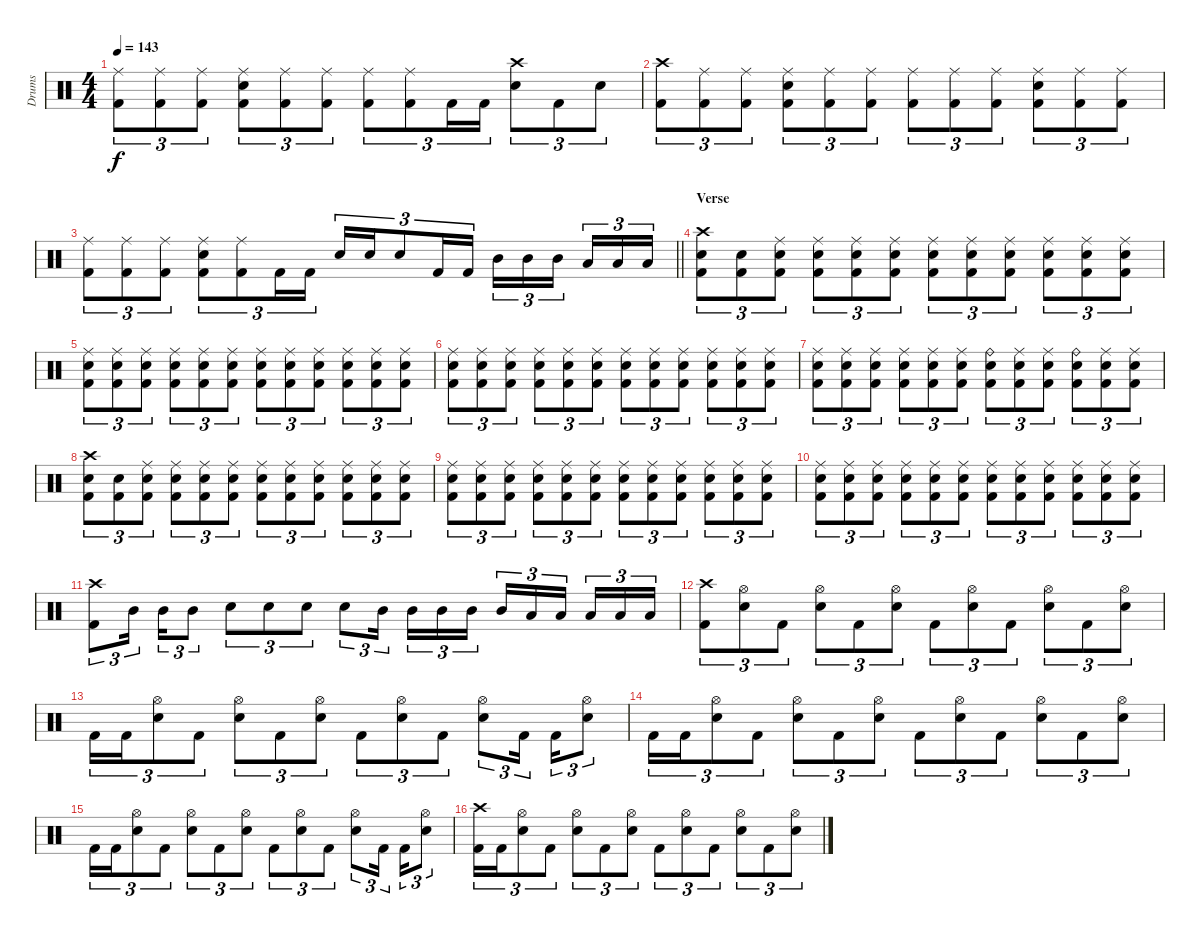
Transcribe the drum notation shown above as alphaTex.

\track ("Drums" "Drums") {instrument percussion}
\staff {score}
\articulation defaults
\ts (4 4)
\tempo 143
\clef neutral
\ks c
("Ride (middle)" "Kick (hit) 2").8{tu (3 2) dy f} ("Ride (middle)" "Kick (hit) 2").8{tu (3 2)} ("Ride (middle)" "Kick (hit) 2").8{tu (3 2)} ("Ride (middle)" "Snare (hit) 2" "Kick (hit) 2").8{tu (3 2)} ("Ride (middle)" "Kick (hit) 2").8{tu (3 2)} ("Ride (middle)" "Kick (hit) 2").8{tu (3 2)} ("Ride (middle)" "Kick (hit) 2").8{tu (3 2)} ("Ride (middle)" "Kick (hit) 2").8{tu (3 2)} "Kick (hit) 2".16{tu (3 2)} "Kick (hit) 2".16{tu (3 2)} ("Crash high (hit)" "Snare (hit) 2").8{tu (3 2)} "Kick (hit) 2".8{tu (3 2)} "Snare (hit) 2".8{tu (3 2)} |
("Crash high (hit)" "Kick (hit) 2").8{tu (3 2)} ("Ride (middle)" "Kick (hit) 2").8{tu (3 2)} ("Ride (middle)" "Kick (hit) 2").8{tu (3 2)} ("Ride (middle)" "Snare (hit) 2" "Kick (hit) 2").8{tu (3 2)} ("Ride (middle)" "Kick (hit) 2").8{tu (3 2)} ("Ride (middle)" "Kick (hit) 2").8{tu (3 2)} ("Ride (middle)" "Kick (hit) 2").8{tu (3 2)} ("Ride (middle)" "Kick (hit) 2").8{tu (3 2)} ("Ride (middle)" "Kick (hit) 2").8{tu (3 2)} ("Ride (middle)" "Snare (hit) 2" "Kick (hit) 2").8{tu (3 2)} ("Ride (middle)" "Kick (hit) 2").8{tu (3 2)} ("Ride (middle)" "Kick (hit) 2").8{tu (3 2)} |
\barLineRight lightlight
("Ride (middle)" "Kick (hit) 2").8{tu (3 2)} ("Ride (middle)" "Kick (hit) 2").8{tu (3 2)} ("Ride (middle)" "Kick (hit) 2").8{tu (3 2)} ("Ride (middle)" "Snare (hit) 2" "Kick (hit) 2").8{tu (3 2)} ("Ride (middle)" "Kick (hit) 2").8{tu (3 2)} "Kick (hit) 2".16{tu (3 2)} "Kick (hit) 2".16{tu (3 2)} "Snare (hit) 2".16{tu (3 2)} "Snare (hit) 2".16{tu (3 2)} "Snare (hit) 2".8{tu (3 2)} "Kick (hit) 2".16{tu (3 2)} "Kick (hit) 2".16{tu (3 2)} "Mid Tom (hit)".16{tu (3 2)} "Mid Tom (hit)".16{tu (3 2)} "Mid Tom (hit)".16{tu (3 2) beam splitsecondary} "Low Tom (hit)".16{tu (3 2)} "Low Tom (hit)".16{tu (3 2)} "Low Tom (hit)".16{tu (3 2)} |
\section ("" "Verse")
("Crash high (hit)" "Snare (hit) 2" "Kick (hit) 2").8{tu (3 2)} ("Snare (hit) 2" "Kick (hit) 2").8{tu (3 2)} ("Ride (middle)" "Snare (hit) 2" "Kick (hit) 2").8{tu (3 2)} ("Ride (middle)" "Snare (hit) 2" "Kick (hit) 2").8{tu (3 2)} ("Ride (middle)" "Snare (hit) 2" "Kick (hit) 2").8{tu (3 2)} ("Ride (middle)" "Snare (hit) 2" "Kick (hit) 2").8{tu (3 2)} ("Ride (middle)" "Snare (hit) 2" "Kick (hit) 2").8{tu (3 2)} ("Ride (middle)" "Snare (hit) 2" "Kick (hit) 2").8{tu (3 2)} ("Ride (middle)" "Snare (hit) 2" "Kick (hit) 2").8{tu (3 2)} ("Ride (middle)" "Snare (hit) 2" "Kick (hit) 2").8{tu (3 2)} ("Ride (middle)" "Snare (hit) 2" "Kick (hit) 2").8{tu (3 2)} ("Ride (middle)" "Snare (hit) 2" "Kick (hit) 2").8{tu (3 2)} |
("Ride (middle)" "Snare (hit) 2" "Kick (hit) 2").8{tu (3 2)} ("Ride (middle)" "Snare (hit) 2" "Kick (hit) 2").8{tu (3 2)} ("Ride (middle)" "Snare (hit) 2" "Kick (hit) 2").8{tu (3 2)} ("Ride (middle)" "Snare (hit) 2" "Kick (hit) 2").8{tu (3 2)} ("Ride (middle)" "Snare (hit) 2" "Kick (hit) 2").8{tu (3 2)} ("Ride (middle)" "Snare (hit) 2" "Kick (hit) 2").8{tu (3 2)} ("Ride (middle)" "Snare (hit) 2" "Kick (hit) 2").8{tu (3 2)} ("Ride (middle)" "Snare (hit) 2" "Kick (hit) 2").8{tu (3 2)} ("Ride (middle)" "Snare (hit) 2" "Kick (hit) 2").8{tu (3 2)} ("Ride (middle)" "Snare (hit) 2" "Kick (hit) 2").8{tu (3 2)} ("Ride (middle)" "Snare (hit) 2" "Kick (hit) 2").8{tu (3 2)} ("Ride (middle)" "Snare (hit) 2" "Kick (hit) 2").8{tu (3 2)} |
("Ride (middle)" "Snare (hit) 2" "Kick (hit) 2").8{tu (3 2)} ("Ride (middle)" "Snare (hit) 2" "Kick (hit) 2").8{tu (3 2)} ("Ride (middle)" "Snare (hit) 2" "Kick (hit) 2").8{tu (3 2)} ("Ride (middle)" "Snare (hit) 2" "Kick (hit) 2").8{tu (3 2)} ("Ride (middle)" "Snare (hit) 2" "Kick (hit) 2").8{tu (3 2)} ("Ride (middle)" "Snare (hit) 2" "Kick (hit) 2").8{tu (3 2)} ("Ride (middle)" "Snare (hit) 2" "Kick (hit) 2").8{tu (3 2)} ("Ride (middle)" "Snare (hit) 2" "Kick (hit) 2").8{tu (3 2)} ("Ride (middle)" "Snare (hit) 2" "Kick (hit) 2").8{tu (3 2)} ("Ride (middle)" "Snare (hit) 2" "Kick (hit) 2").8{tu (3 2)} ("Ride (middle)" "Snare (hit) 2" "Kick (hit) 2").8{tu (3 2)} ("Ride (middle)" "Snare (hit) 2" "Kick (hit) 2").8{tu (3 2)} |
("Ride (middle)" "Snare (hit) 2" "Kick (hit) 2").8{tu (3 2)} ("Ride (middle)" "Snare (hit) 2" "Kick (hit) 2").8{tu (3 2)} ("Ride (middle)" "Snare (hit) 2" "Kick (hit) 2").8{tu (3 2)} ("Ride (middle)" "Snare (hit) 2" "Kick (hit) 2").8{tu (3 2)} ("Ride (middle)" "Snare (hit) 2" "Kick (hit) 2").8{tu (3 2)} ("Ride (middle)" "Snare (hit) 2" "Kick (hit) 2").8{tu (3 2)} ("Ride (bell)" "Snare (hit) 2" "Kick (hit) 2").8{tu (3 2)} ("Ride (middle)" "Snare (hit) 2" "Kick (hit) 2").8{tu (3 2)} ("Ride (middle)" "Snare (hit) 2" "Kick (hit) 2").8{tu (3 2)} ("Ride (bell)" "Snare (hit) 2" "Kick (hit) 2").8{tu (3 2)} ("Ride (middle)" "Snare (hit) 2" "Kick (hit) 2").8{tu (3 2)} ("Ride (middle)" "Snare (hit) 2" "Kick (hit) 2").8{tu (3 2)} |
("Crash high (hit)" "Snare (hit) 2" "Kick (hit) 2").8{tu (3 2)} ("Snare (hit) 2" "Kick (hit) 2").8{tu (3 2)} ("Ride (middle)" "Snare (hit) 2" "Kick (hit) 2").8{tu (3 2)} ("Ride (middle)" "Snare (hit) 2" "Kick (hit) 2").8{tu (3 2)} ("Ride (middle)" "Snare (hit) 2" "Kick (hit) 2").8{tu (3 2)} ("Ride (middle)" "Snare (hit) 2" "Kick (hit) 2").8{tu (3 2)} ("Ride (middle)" "Snare (hit) 2" "Kick (hit) 2").8{tu (3 2)} ("Ride (middle)" "Snare (hit) 2" "Kick (hit) 2").8{tu (3 2)} ("Ride (middle)" "Snare (hit) 2" "Kick (hit) 2").8{tu (3 2)} ("Ride (middle)" "Snare (hit) 2" "Kick (hit) 2").8{tu (3 2)} ("Ride (middle)" "Snare (hit) 2" "Kick (hit) 2").8{tu (3 2)} ("Ride (middle)" "Snare (hit) 2" "Kick (hit) 2").8{tu (3 2)} |
("Ride (middle)" "Snare (hit) 2" "Kick (hit) 2").8{tu (3 2)} ("Ride (middle)" "Snare (hit) 2" "Kick (hit) 2").8{tu (3 2)} ("Ride (middle)" "Snare (hit) 2" "Kick (hit) 2").8{tu (3 2)} ("Ride (middle)" "Snare (hit) 2" "Kick (hit) 2").8{tu (3 2)} ("Ride (middle)" "Snare (hit) 2" "Kick (hit) 2").8{tu (3 2)} ("Ride (middle)" "Snare (hit) 2" "Kick (hit) 2").8{tu (3 2)} ("Ride (middle)" "Snare (hit) 2" "Kick (hit) 2").8{tu (3 2)} ("Ride (middle)" "Snare (hit) 2" "Kick (hit) 2").8{tu (3 2)} ("Ride (middle)" "Snare (hit) 2" "Kick (hit) 2").8{tu (3 2)} ("Ride (middle)" "Snare (hit) 2" "Kick (hit) 2").8{tu (3 2)} ("Ride (middle)" "Snare (hit) 2" "Kick (hit) 2").8{tu (3 2)} ("Ride (middle)" "Snare (hit) 2" "Kick (hit) 2").8{tu (3 2)} |
("Ride (middle)" "Snare (hit) 2" "Kick (hit) 2").8{tu (3 2)} ("Ride (middle)" "Snare (hit) 2" "Kick (hit) 2").8{tu (3 2)} ("Ride (middle)" "Snare (hit) 2" "Kick (hit) 2").8{tu (3 2)} ("Ride (middle)" "Snare (hit) 2" "Kick (hit) 2").8{tu (3 2)} ("Ride (middle)" "Snare (hit) 2" "Kick (hit) 2").8{tu (3 2)} ("Ride (middle)" "Snare (hit) 2" "Kick (hit) 2").8{tu (3 2)} ("Ride (middle)" "Snare (hit) 2" "Kick (hit) 2").8{tu (3 2)} ("Ride (middle)" "Snare (hit) 2" "Kick (hit) 2").8{tu (3 2)} ("Ride (middle)" "Snare (hit) 2" "Kick (hit) 2").8{tu (3 2)} ("Ride (middle)" "Snare (hit) 2" "Kick (hit) 2").8{tu (3 2)} ("Ride (middle)" "Snare (hit) 2" "Kick (hit) 2").8{tu (3 2)} ("Ride (middle)" "Snare (hit) 2" "Kick (hit) 2").8{tu (3 2)} |
("Crash high (hit)" "Kick (hit) 2").8{tu (3 2)} "Mid Tom (hit)".16{tu (3 2) beam splitsecondary} "Mid Tom (hit)".16{tu (3 2)} "Mid Tom (hit)".8{tu (3 2)} "Snare (hit) 2".8{tu (3 2)} "Snare (hit) 2".8{tu (3 2)} "Snare (hit) 2".8{tu (3 2)} "Snare (hit) 2".8{tu (3 2)} "Mid Tom (hit)".16{tu (3 2) beam splitsecondary} "Mid Tom (hit)".16{tu (3 2)} "Mid Tom (hit)".16{tu (3 2)} "Mid Tom (hit)".16{tu (3 2)} "Mid Tom (hit)".16{tu (3 2)} "Low Tom (hit)".16{tu (3 2)} "Low Tom (hit)".16{tu (3 2) beam splitsecondary} "Low Tom (hit)".16{tu (3 2)} "Low Tom (hit)".16{tu (3 2)} "Low Tom (hit)".16{tu (3 2)} |
("Crash high (hit)" "Kick (hit) 2").8{tu (3 2)} ("Hi-Hat (open)" "Snare (hit) 2").8{tu (3 2)} "Kick (hit) 2".8{tu (3 2)} ("Hi-Hat (open)" "Snare (hit) 2").8{tu (3 2)} "Kick (hit) 2".8{tu (3 2)} ("Hi-Hat (open)" "Snare (hit) 2").8{tu (3 2)} "Kick (hit) 2".8{tu (3 2)} ("Hi-Hat (open)" "Snare (hit) 2").8{tu (3 2)} "Kick (hit) 2".8{tu (3 2)} ("Hi-Hat (open)" "Snare (hit) 2").8{tu (3 2)} "Kick (hit) 2".8{tu (3 2)} ("Hi-Hat (open)" "Snare (hit) 2").8{tu (3 2)} |
"Kick (hit) 2".16{tu (3 2)} "Kick (hit) 2".16{tu (3 2)} ("Hi-Hat (open)" "Snare (hit) 2").8{tu (3 2)} "Kick (hit) 2".8{tu (3 2)} ("Hi-Hat (open)" "Snare (hit) 2").8{tu (3 2)} "Kick (hit) 2".8{tu (3 2)} ("Hi-Hat (open)" "Snare (hit) 2").8{tu (3 2)} "Kick (hit) 2".8{tu (3 2)} ("Hi-Hat (open)" "Snare (hit) 2").8{tu (3 2)} "Kick (hit) 2".8{tu (3 2)} ("Hi-Hat (open)" "Snare (hit) 2").8{tu (3 2)} "Kick (hit) 2".16{tu (3 2) beam splitsecondary} "Kick (hit) 2".16{tu (3 2)} ("Hi-Hat (open)" "Snare (hit) 2").8{tu (3 2)} |
"Kick (hit) 2".16{tu (3 2)} "Kick (hit) 2".16{tu (3 2)} ("Hi-Hat (open)" "Snare (hit) 2").8{tu (3 2)} "Kick (hit) 2".8{tu (3 2)} ("Hi-Hat (open)" "Snare (hit) 2").8{tu (3 2)} "Kick (hit) 2".8{tu (3 2)} ("Hi-Hat (open)" "Snare (hit) 2").8{tu (3 2)} "Kick (hit) 2".8{tu (3 2)} ("Hi-Hat (open)" "Snare (hit) 2").8{tu (3 2)} "Kick (hit) 2".8{tu (3 2)} ("Hi-Hat (open)" "Snare (hit) 2").8{tu (3 2)} "Kick (hit) 2".8{tu (3 2)} ("Hi-Hat (open)" "Snare (hit) 2").8{tu (3 2)} |
"Kick (hit) 2".16{tu (3 2)} "Kick (hit) 2".16{tu (3 2)} ("Hi-Hat (open)" "Snare (hit) 2").8{tu (3 2)} "Kick (hit) 2".8{tu (3 2)} ("Hi-Hat (open)" "Snare (hit) 2").8{tu (3 2)} "Kick (hit) 2".8{tu (3 2)} ("Hi-Hat (open)" "Snare (hit) 2").8{tu (3 2)} "Kick (hit) 2".8{tu (3 2)} ("Hi-Hat (open)" "Snare (hit) 2").8{tu (3 2)} "Kick (hit) 2".8{tu (3 2)} ("Hi-Hat (open)" "Snare (hit) 2").8{tu (3 2)} "Kick (hit) 2".16{tu (3 2) beam splitsecondary} "Kick (hit) 2".16{tu (3 2)} ("Hi-Hat (open)" "Snare (hit) 2").8{tu (3 2)} |
("Crash high (hit)" "Kick (hit) 2").16{tu (3 2)} "Kick (hit) 2".16{tu (3 2)} ("Hi-Hat (open)" "Snare (hit) 2").8{tu (3 2)} "Kick (hit) 2".8{tu (3 2)} ("Hi-Hat (open)" "Snare (hit) 2").8{tu (3 2)} "Kick (hit) 2".8{tu (3 2)} ("Hi-Hat (open)" "Snare (hit) 2").8{tu (3 2)} "Kick (hit) 2".8{tu (3 2)} ("Hi-Hat (open)" "Snare (hit) 2").8{tu (3 2)} "Kick (hit) 2".8{tu (3 2)} ("Hi-Hat (open)" "Snare (hit) 2").8{tu (3 2)} "Kick (hit) 2".8{tu (3 2)} ("Hi-Hat (open)" "Snare (hit) 2").8{tu (3 2)}
